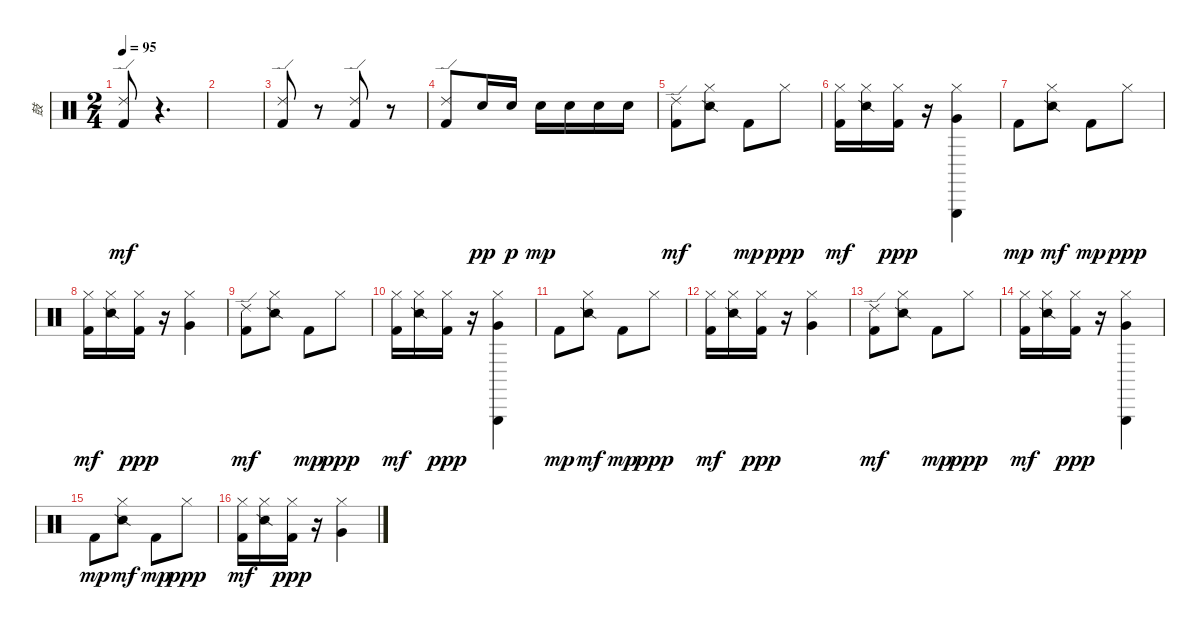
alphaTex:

\track ("鼓" "鼓") {instrument percussion}
\staff {score}
\articulation defaults
\ts (2 4)
\tempo 95
\clef neutral
\ks c
("Kick (hit) 2" "Ride (edge) 2").8{dy mf} r.4{d} |
|
("Kick (hit) 2" "Ride (edge) 2").8 r.8 ("Kick (hit) 2" "Ride (edge) 2").8 r.8 |
("Kick (hit) 2" "Ride (edge) 2").8 "Electric Snare (hit)".16{dy pp} "Electric Snare (hit)".16{dy p} "Electric Snare (hit)".16{dy mp} "Electric Snare (hit)".16 "Electric Snare (hit)".16 "Electric Snare (hit)".16 |
("Kick (hit) 2" "Ride (edge) 2").8{dy mf} ("Snare (side stick) 2" "Hi-Hat (closed)").8 "Kick (hit) 2".8{dy mp} "Hi-Hat (closed)".8{dy ppp} |
("Kick (hit) 2" "Hi-Hat (closed)").16{dy mf} ("Snare (side stick) 2" "Hi-Hat (closed)").16 ("Kick (hit) 2" "Hi-Hat (closed)").16{dy ppp} r.16 ("Triangle (hit)" "Very Low Tom (hit)" "Hi-Hat (closed)").4 |
"Kick (hit) 2".8{dy mp} ("Snare (side stick) 2" "Hi-Hat (closed)").8{dy mf} "Kick (hit) 2".8{dy mp} "Hi-Hat (closed)".8{dy ppp} |
("Kick (hit) 2" "Hi-Hat (closed)").16{dy mf} ("Snare (side stick) 2" "Hi-Hat (closed)").16 ("Kick (hit) 2" "Hi-Hat (closed)").16{dy ppp} r.16 ("Very Low Tom (hit)" "Hi-Hat (closed)").4 |
("Kick (hit) 2" "Ride (edge) 2").8{dy mf} ("Snare (side stick) 2" "Hi-Hat (closed)").8 "Kick (hit) 2".8{dy mp} "Hi-Hat (closed)".8{dy ppp} |
("Kick (hit) 2" "Hi-Hat (closed)").16{dy mf} ("Snare (side stick) 2" "Hi-Hat (closed)").16 ("Kick (hit) 2" "Hi-Hat (closed)").16{dy ppp} r.16 ("Triangle (hit)" "Very Low Tom (hit)" "Hi-Hat (closed)").4 |
"Kick (hit) 2".8{dy mp} ("Snare (side stick) 2" "Hi-Hat (closed)").8{dy mf} "Kick (hit) 2".8{dy mp} "Hi-Hat (closed)".8{dy ppp} |
("Kick (hit) 2" "Hi-Hat (closed)").16{dy mf} ("Snare (side stick) 2" "Hi-Hat (closed)").16 ("Kick (hit) 2" "Hi-Hat (closed)").16{dy ppp} r.16 ("Very Low Tom (hit)" "Hi-Hat (closed)").4 |
("Kick (hit) 2" "Ride (edge) 2").8{dy mf} ("Snare (side stick) 2" "Hi-Hat (closed)").8 "Kick (hit) 2".8{dy mp} "Hi-Hat (closed)".8{dy ppp} |
("Kick (hit) 2" "Hi-Hat (closed)").16{dy mf} ("Snare (side stick) 2" "Hi-Hat (closed)").16 ("Kick (hit) 2" "Hi-Hat (closed)").16{dy ppp} r.16 ("Triangle (hit)" "Very Low Tom (hit)" "Hi-Hat (closed)").4 |
"Kick (hit) 2".8{dy mp} ("Snare (side stick) 2" "Hi-Hat (closed)").8{dy mf} "Kick (hit) 2".8{dy mp} "Hi-Hat (closed)".8{dy ppp} |
("Kick (hit) 2" "Hi-Hat (closed)").16{dy mf} ("Snare (side stick) 2" "Hi-Hat (closed)").16 ("Kick (hit) 2" "Hi-Hat (closed)").16{dy ppp} r.16 ("Very Low Tom (hit)" "Hi-Hat (closed)").4
